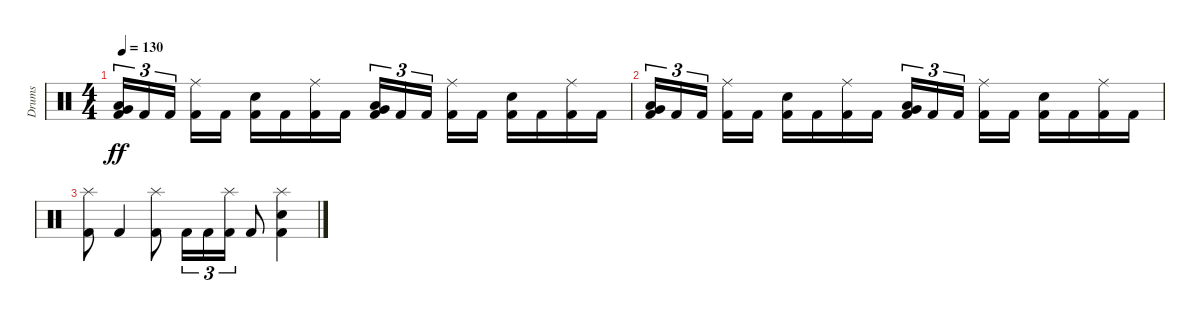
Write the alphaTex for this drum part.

\track ("Drums" "Drums") {instrument percussion}
\staff {score}
\articulation defaults
\ts (4 4)
\tempo 130
\clef neutral
\ks c
("Low Tom (hit)" "Very Low Tom (hit)" "Kick (hit) 2").16{tu (3 2) dy ff} "Kick (hit) 2".16{tu (3 2)} "Kick (hit) 2".16{tu (3 2) beam splitsecondary} ("Ride (middle)" "Kick (hit) 2").16 "Kick (hit) 2".16 ("Snare (hit) 2" "Kick (hit) 2").16 "Kick (hit) 2".16 ("Ride (middle)" "Kick (hit) 2").16 "Kick (hit) 2".16 ("Low Tom (hit)" "Very Low Tom (hit)" "Kick (hit) 2").16{tu (3 2)} "Kick (hit) 2".16{tu (3 2)} "Kick (hit) 2".16{tu (3 2) beam splitsecondary} ("Ride (middle)" "Kick (hit) 2").16 "Kick (hit) 2".16 ("Snare (hit) 2" "Kick (hit) 2").16 "Kick (hit) 2".16 ("Ride (middle)" "Kick (hit) 2").16 "Kick (hit) 2".16 |
("Low Tom (hit)" "Very Low Tom (hit)" "Kick (hit) 2").16{tu (3 2)} "Kick (hit) 2".16{tu (3 2)} "Kick (hit) 2".16{tu (3 2) beam splitsecondary} ("Ride (middle)" "Kick (hit) 2").16 "Kick (hit) 2".16 ("Snare (hit) 2" "Kick (hit) 2").16 "Kick (hit) 2".16 ("Ride (middle)" "Kick (hit) 2").16 "Kick (hit) 2".16 ("Low Tom (hit)" "Very Low Tom (hit)" "Kick (hit) 2").16{tu (3 2)} "Kick (hit) 2".16{tu (3 2)} "Kick (hit) 2".16{tu (3 2) beam splitsecondary} ("Ride (middle)" "Kick (hit) 2").16 "Kick (hit) 2".16 ("Snare (hit) 2" "Kick (hit) 2").16 "Kick (hit) 2".16 ("Ride (middle)" "Kick (hit) 2").16 "Kick (hit) 2".16 |
("Splash (hit)" "Kick (hit) 2").8 "Kick (hit) 2".4 ("Splash (hit)" "Kick (hit) 2").8 "Kick (hit) 2".16{tu (3 2)} "Kick (hit) 2".16{tu (3 2)} ("Splash (hit)" "Kick (hit) 2").16{tu (3 2)} "Kick (hit) 2".8 ("Splash (hit)" "Snare (hit) 2" "Kick (hit) 2").4
